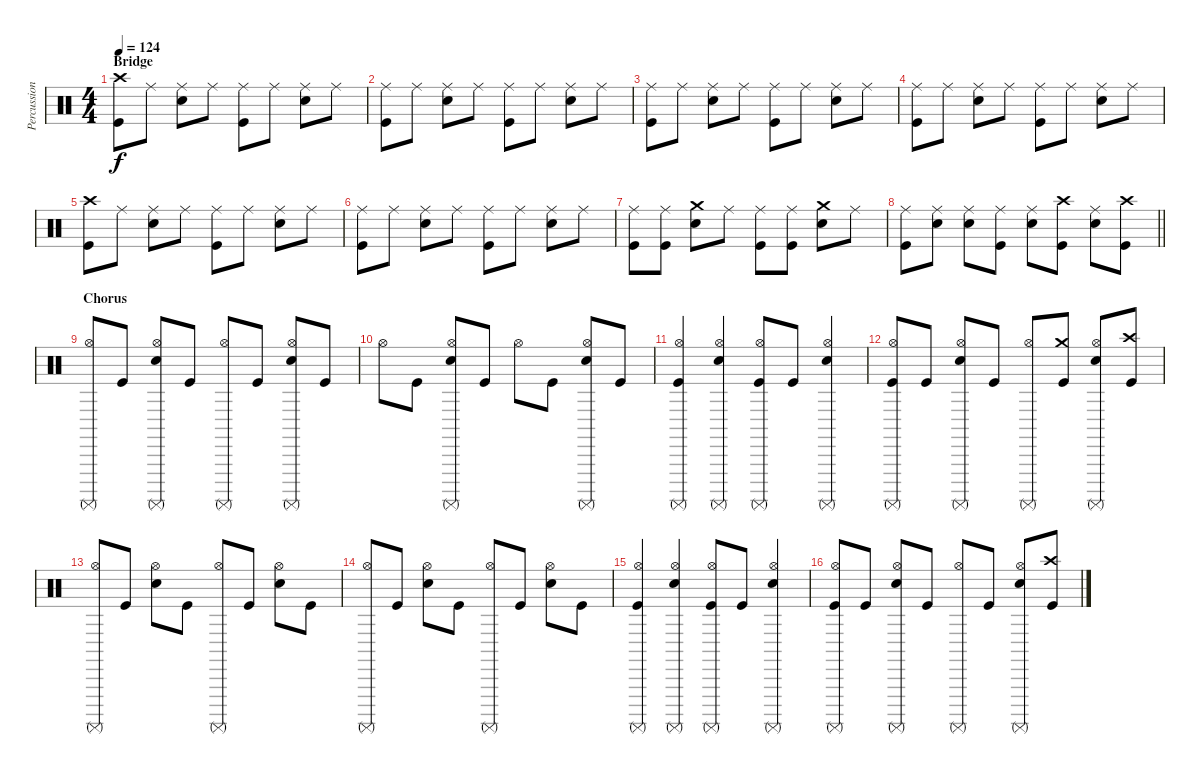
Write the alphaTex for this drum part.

\track ("Percussion" "Percussion") {instrument percussion}
\staff {score}
\articulation defaults
\ts (4 4)
\section ("" "Bridge")
\tempo 124
\clef neutral
\ks c
("Crash high (hit)" "Kick (hit)").8{dy f} "Ride (middle)".8 ("Ride (middle)" "Snare (hit) 2").8 "Ride (middle)".8 ("Ride (middle)" "Kick (hit)").8 "Ride (middle)".8 ("Ride (middle)" "Snare (hit) 2").8 "Ride (middle)".8 |
("Ride (middle)" "Kick (hit)").8 "Ride (middle)".8 ("Ride (middle)" "Snare (hit) 2").8 "Ride (middle)".8 ("Ride (middle)" "Kick (hit)").8 "Ride (middle)".8 ("Ride (middle)" "Snare (hit) 2").8 "Ride (middle)".8 |
("Ride (middle)" "Kick (hit)").8 "Ride (middle)".8 ("Ride (middle)" "Snare (hit) 2").8 "Ride (middle)".8 ("Ride (middle)" "Kick (hit)").8 "Ride (middle)".8 ("Ride (middle)" "Snare (hit) 2").8 "Ride (middle)".8 |
("Ride (middle)" "Kick (hit)").8 "Ride (middle)".8 ("Ride (middle)" "Snare (hit) 2").8 "Ride (middle)".8 ("Ride (middle)" "Kick (hit)").8 "Ride (middle)".8 ("Ride (middle)" "Snare (hit) 2").8 "Ride (middle)".8 |
("Crash high (hit)" "Kick (hit)").8 "Ride (middle)".8 ("Ride (middle)" "Snare (hit) 2").8 "Ride (middle)".8 ("Ride (middle)" "Kick (hit)").8 "Ride (middle)".8 ("Ride (middle)" "Snare (hit) 2").8 "Ride (middle)".8 |
("Ride (middle)" "Kick (hit)").8 "Ride (middle)".8 ("Ride (middle)" "Snare (hit) 2").8 "Ride (middle)".8 ("Ride (middle)" "Kick (hit)").8 "Ride (middle)".8 ("Ride (middle)" "Snare (hit) 2").8 "Ride (middle)".8 |
("Ride (middle)" "Kick (hit)").8 ("Ride (middle)" "Kick (hit)").8 ("Crash medium (hit)" "Snare (hit) 2").8 "Ride (middle)".8 ("Ride (middle)" "Kick (hit)").8 ("Ride (middle)" "Kick (hit)").8 ("Crash medium (hit)" "Snare (hit) 2").8 "Ride (middle)".8 |
\barLineRight lightlight
("Ride (middle)" "Kick (hit)").8 ("Ride (middle)" "Snare (hit) 2").8 ("Ride (middle)" "Snare (hit) 2").8 ("Ride (middle)" "Kick (hit)").8 ("Ride (middle)" "Snare (hit) 2").8 ("Crash high (hit)" "Kick (hit)").8 ("Ride (middle)" "Snare (hit) 2").8 ("Crash high (hit)" "Kick (hit)").8 |
\section ("" "Chorus")
("Hi-Hat (open)" "Surdo (mute)").8 "Kick (hit)".8 ("Hi-Hat (open)" "Snare (hit) 2" "Surdo (mute)").8 "Kick (hit)".8 ("Hi-Hat (open)" "Surdo (mute)").8 "Kick (hit)".8 ("Hi-Hat (open)" "Snare (hit) 2" "Surdo (mute)").8 "Kick (hit)".8 |
"Hi-Hat (open)".8 "Kick (hit)".8 ("Hi-Hat (open)" "Snare (hit) 2" "Surdo (mute)").8 "Kick (hit)".8 "Hi-Hat (open)".8 "Kick (hit)".8 ("Hi-Hat (open)" "Snare (hit) 2" "Surdo (mute)").8 "Kick (hit)".8 |
("Hi-Hat (open)" "Surdo (mute)" "Kick (hit)").4 ("Hi-Hat (open)" "Snare (hit) 2" "Surdo (mute)").4 ("Hi-Hat (open)" "Surdo (mute)" "Kick (hit)").8 "Kick (hit)".8 ("Hi-Hat (open)" "Snare (hit) 2" "Surdo (mute)").4 |
("Hi-Hat (open)" "Surdo (mute)" "Kick (hit)").8 "Kick (hit)".8 ("Hi-Hat (open)" "Snare (hit) 2" "Surdo (mute)").8 "Kick (hit)".8 ("Hi-Hat (open)" "Surdo (mute)").8 ("Crash medium (hit)" "Kick (hit)").8 ("Hi-Hat (open)" "Snare (hit) 2" "Surdo (mute)").8 ("Crash high (hit)" "Kick (hit)").8 |
("Hi-Hat (open)" "Surdo (mute)").8 "Kick (hit)".8 ("Hi-Hat (open)" "Snare (hit) 2").8 "Kick (hit)".8 ("Hi-Hat (open)" "Surdo (mute)").8 "Kick (hit)".8 ("Hi-Hat (open)" "Snare (hit) 2").8 "Kick (hit)".8 |
("Hi-Hat (open)" "Surdo (mute)").8 "Kick (hit)".8 ("Hi-Hat (open)" "Snare (hit) 2").8 "Kick (hit)".8 ("Hi-Hat (open)" "Surdo (mute)").8 "Kick (hit)".8 ("Hi-Hat (open)" "Snare (hit) 2").8 "Kick (hit)".8 |
("Hi-Hat (open)" "Surdo (mute)" "Kick (hit)").4 ("Hi-Hat (open)" "Snare (hit) 2" "Surdo (mute)").4 ("Hi-Hat (open)" "Surdo (mute)" "Kick (hit)").8 "Kick (hit)".8 ("Hi-Hat (open)" "Snare (hit) 2" "Surdo (mute)").4 |
("Hi-Hat (open)" "Surdo (mute)" "Kick (hit)").8 "Kick (hit)".8 ("Hi-Hat (open)" "Snare (hit) 2" "Surdo (mute)").8 "Kick (hit)".8 ("Hi-Hat (open)" "Surdo (mute)").8 "Kick (hit)".8 ("Hi-Hat (open)" "Snare (hit) 2" "Surdo (mute)").8 ("Crash high (hit)" "Kick (hit)").8
